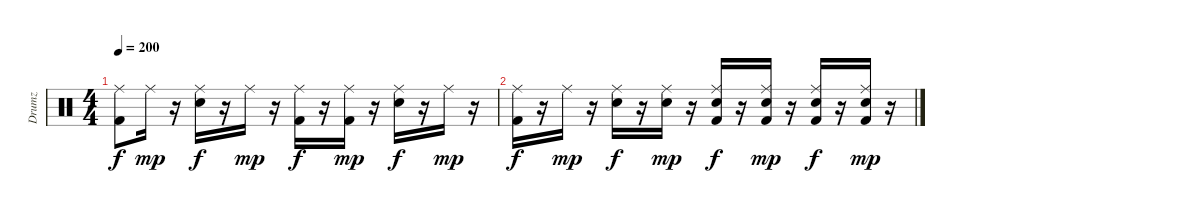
\track ("Drumz" "Drumz") {instrument percussion}
\staff {score}
\articulation defaults
\ts (4 4)
\tempo 200
\clef neutral
\ks c
("Kick (hit) 2" "Ride (middle)").8{dy f} "Ride (middle)".16{dy mp} r.16 ("Snare (hit) 2" "Ride (middle)").16{dy f} r.16 "Ride (middle)".16{dy mp} r.16 ("Kick (hit) 2" "Ride (middle)").16{dy f} r.16 ("Kick (hit) 2" "Ride (middle)").16{dy mp} r.16 ("Snare (hit) 2" "Ride (middle)").16{dy f} r.16 "Ride (middle)".16{dy mp} r.16 |
("Kick (hit) 2" "Ride (middle)").16{dy f} r.16 "Ride (middle)".16{dy mp} r.16 ("Snare (hit) 2" "Ride (middle)").16{dy f} r.16 ("Snare (hit) 2" "Ride (middle)").16{dy mp} r.16 ("Snare (hit) 2" "Kick (hit) 2" "Ride (middle)").16{dy f} r.16 ("Snare (hit) 2" "Kick (hit) 2" "Ride (middle)").16{dy mp} r.16 ("Kick (hit) 2" "Snare (hit) 2" "Ride (middle)").16{dy f} r.16 ("Snare (hit) 2" "Kick (hit) 2" "Ride (middle)").16{dy mp} r.16
